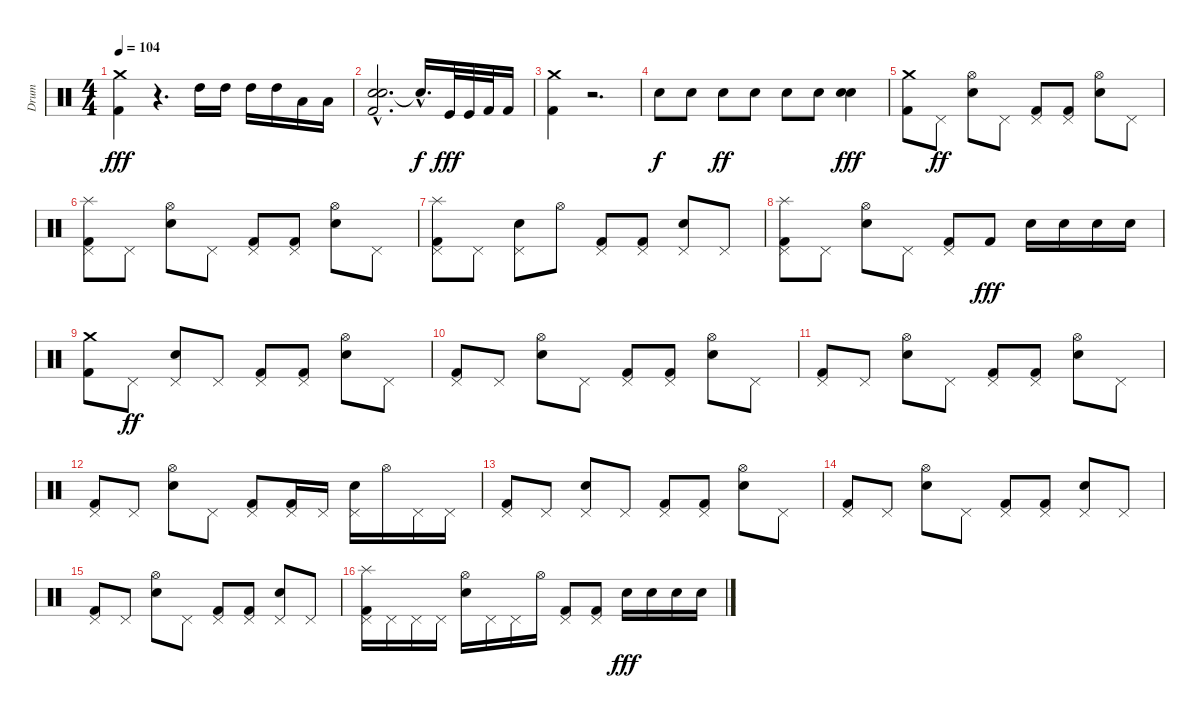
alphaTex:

\track ("Drum" "Drum") {instrument percussion}
\staff {score}
\articulation defaults
\ts (4 4)
\tempo 104
\clef neutral
\ks c
("Crash medium (hit)" "Kick (hit) 2").4{dy fff} r.4{d} "High Tom (hit)".16 "High Tom (hit)".16 "High Tom (hit)".16 "High Tom (hit)".16 "Low Tom (hit)".16 "Low Tom (hit)".16 |
("Electric Snare (hit)"{hac} "Kick (hit) 2" "Electric Snare (hit)").2{d} "Snare (hit)"{hac t}.16{d dy f} "Kick (hit)".32{dy fff} "Kick (hit)".32 "Kick (hit) 2".32 "Kick (hit) 2".16 |
("Crash medium (hit)" "Kick (hit) 2").4 r.2{d} |
"Electric Snare (hit)".8{dy f} "Electric Snare (hit)".8 "Electric Snare (hit)".8{dy ff} "Electric Snare (hit)".8 "Electric Snare (hit)".8 "Electric Snare (hit)".8 ("Electric Snare (hit)" "Electric Snare (hit)").4{dy fff} |
("Kick (hit) 2" "Crash medium (hit)").8 "Pedal Hi-Hat (hit)".8{dy ff} ("Electric Snare (hit)" "Hi-Hat (open)").8 "Pedal Hi-Hat (hit)".8 ("Kick (hit) 2" "Pedal Hi-Hat (hit)").8 ("Kick (hit) 2" "Pedal Hi-Hat (hit)").8 ("Electric Snare (hit)" "Hi-Hat (open)").8 "Pedal Hi-Hat (hit)".8 |
("Splash (hit)" "Kick (hit) 2" "Pedal Hi-Hat (hit)").8 "Pedal Hi-Hat (hit)".8 ("Electric Snare (hit)" "Hi-Hat (open)").8 "Pedal Hi-Hat (hit)".8 ("Kick (hit) 2" "Pedal Hi-Hat (hit)").8 ("Kick (hit) 2" "Pedal Hi-Hat (hit)").8 ("Electric Snare (hit)" "Hi-Hat (open)").8 "Pedal Hi-Hat (hit)".8 |
("Splash (hit)" "Kick (hit) 2" "Pedal Hi-Hat (hit)").8 "Pedal Hi-Hat (hit)".8 ("Electric Snare (hit)" "Pedal Hi-Hat (hit)").8 "Hi-Hat (open)".8 ("Kick (hit) 2" "Pedal Hi-Hat (hit)").8 ("Kick (hit) 2" "Pedal Hi-Hat (hit)").8 ("Electric Snare (hit)" "Pedal Hi-Hat (hit)").8 "Pedal Hi-Hat (hit)".8 |
("Splash (hit)" "Kick (hit) 2" "Pedal Hi-Hat (hit)").8 "Pedal Hi-Hat (hit)".8 ("Electric Snare (hit)" "Hi-Hat (open)").8 "Pedal Hi-Hat (hit)".8 ("Kick (hit) 2" "Pedal Hi-Hat (hit)").8 "Kick (hit) 2".8{dy fff} "Electric Snare (hit)".16 "Electric Snare (hit)".16 "Electric Snare (hit)".16 "Electric Snare (hit)".16 |
("Crash medium (hit)" "Kick (hit) 2").8 "Pedal Hi-Hat (hit)".8{dy ff} ("Electric Snare (hit)" "Pedal Hi-Hat (hit)").8 "Pedal Hi-Hat (hit)".8 ("Kick (hit) 2" "Pedal Hi-Hat (hit)").8 ("Kick (hit) 2" "Pedal Hi-Hat (hit)").8 ("Electric Snare (hit)" "Hi-Hat (open)").8 "Pedal Hi-Hat (hit)".8 |
("Kick (hit) 2" "Pedal Hi-Hat (hit)").8 "Pedal Hi-Hat (hit)".8 ("Electric Snare (hit)" "Hi-Hat (open)").8 "Pedal Hi-Hat (hit)".8 ("Kick (hit) 2" "Pedal Hi-Hat (hit)").8 ("Kick (hit) 2" "Pedal Hi-Hat (hit)").8 ("Electric Snare (hit)" "Hi-Hat (open)").8 "Pedal Hi-Hat (hit)".8 |
("Kick (hit) 2" "Pedal Hi-Hat (hit)").8 "Pedal Hi-Hat (hit)".8 ("Electric Snare (hit)" "Hi-Hat (open)").8 "Pedal Hi-Hat (hit)".8 ("Kick (hit) 2" "Pedal Hi-Hat (hit)").8 ("Kick (hit) 2" "Pedal Hi-Hat (hit)").8 ("Electric Snare (hit)" "Hi-Hat (open)").8 "Pedal Hi-Hat (hit)".8 |
("Kick (hit) 2" "Pedal Hi-Hat (hit)").8 "Pedal Hi-Hat (hit)".8 ("Electric Snare (hit)" "Hi-Hat (open)").8 "Pedal Hi-Hat (hit)".8 ("Kick (hit) 2" "Pedal Hi-Hat (hit)").8 ("Kick (hit) 2" "Pedal Hi-Hat (hit)").16 "Pedal Hi-Hat (hit)".16 ("Electric Snare (hit)" "Pedal Hi-Hat (hit)").16 "Hi-Hat (open)".16 "Pedal Hi-Hat (hit)".16 "Pedal Hi-Hat (hit)".16 |
("Kick (hit) 2" "Pedal Hi-Hat (hit)").8 "Pedal Hi-Hat (hit)".8 ("Electric Snare (hit)" "Pedal Hi-Hat (hit)").8 "Pedal Hi-Hat (hit)".8 ("Kick (hit) 2" "Pedal Hi-Hat (hit)").8 ("Kick (hit) 2" "Pedal Hi-Hat (hit)").8 ("Electric Snare (hit)" "Hi-Hat (open)").8 "Pedal Hi-Hat (hit)".8 |
("Kick (hit) 2" "Pedal Hi-Hat (hit)").8 "Pedal Hi-Hat (hit)".8 ("Electric Snare (hit)" "Hi-Hat (open)").8 "Pedal Hi-Hat (hit)".8 ("Kick (hit) 2" "Pedal Hi-Hat (hit)").8 ("Kick (hit) 2" "Pedal Hi-Hat (hit)").8 ("Electric Snare (hit)" "Pedal Hi-Hat (hit)").8 "Pedal Hi-Hat (hit)".8 |
("Kick (hit) 2" "Pedal Hi-Hat (hit)").8 "Pedal Hi-Hat (hit)".8 ("Electric Snare (hit)" "Hi-Hat (open)").8 "Pedal Hi-Hat (hit)".8 ("Kick (hit) 2" "Pedal Hi-Hat (hit)").8 ("Kick (hit) 2" "Pedal Hi-Hat (hit)").8 ("Electric Snare (hit)" "Pedal Hi-Hat (hit)").8 "Pedal Hi-Hat (hit)".8 |
("Splash (hit)" "Kick (hit) 2" "Pedal Hi-Hat (hit)").16 "Pedal Hi-Hat (hit)".16 "Pedal Hi-Hat (hit)".16 "Pedal Hi-Hat (hit)".16 ("Electric Snare (hit)" "Hi-Hat (open)").16 "Pedal Hi-Hat (hit)".16 "Pedal Hi-Hat (hit)".16 "Hi-Hat (open)".16 ("Kick (hit) 2" "Pedal Hi-Hat (hit)").8 ("Kick (hit) 2" "Pedal Hi-Hat (hit)").8 "Electric Snare (hit)".16{dy fff} "Electric Snare (hit)".16 "Electric Snare (hit)".16 "Electric Snare (hit)".16
